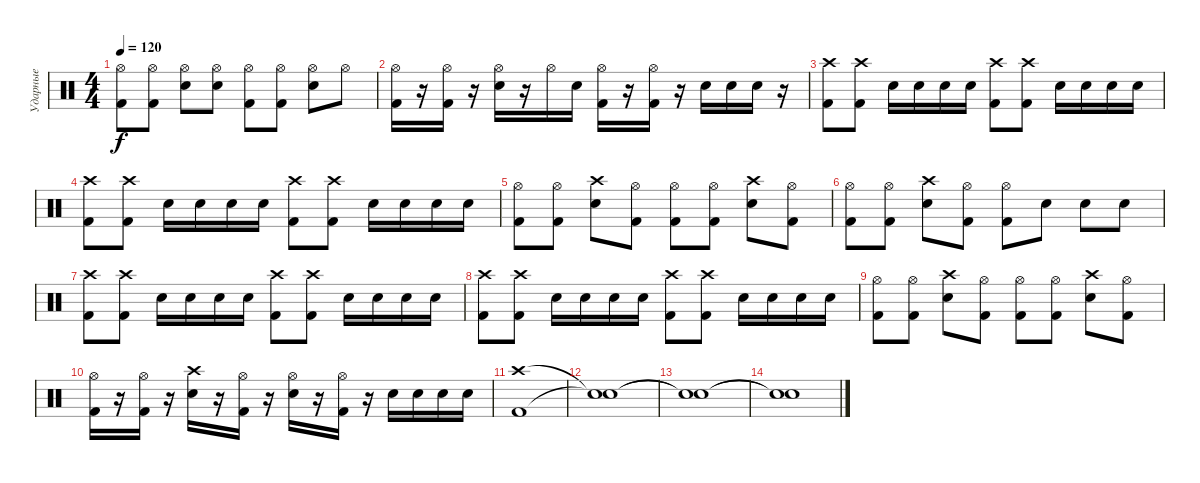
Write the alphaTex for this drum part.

\track ("Ударные" "Ударные") {instrument percussion}
\staff {score}
\articulation defaults
\ts (4 4)
\tempo 120
\clef neutral
\ks c
("Hi-Hat (open)" "Kick (hit) 2").8{dy f} ("Hi-Hat (open)" "Kick (hit) 2").8 ("Hi-Hat (open)" "Snare (hit) 2").8 ("Hi-Hat (open)" "Snare (hit) 2").8 ("Hi-Hat (open)" "Kick (hit) 2").8 ("Hi-Hat (open)" "Kick (hit) 2").8 ("Hi-Hat (open)" "Snare (hit) 2").8 "Hi-Hat (open)".8 |
("Hi-Hat (open)" "Kick (hit) 2").16 r.16 ("Hi-Hat (open)" "Kick (hit) 2").16 r.16 ("Hi-Hat (open)" "Snare (hit) 2").16 r.16 "Hi-Hat (open)".16 "Snare (hit) 2".16 ("Hi-Hat (open)" "Kick (hit) 2").16 r.16 ("Hi-Hat (open)" "Kick (hit) 2").16 r.16 "Snare (hit) 2".16 "Snare (hit) 2".16 "Snare (hit) 2".16 r.16 |
("Crash high (hit)" "Kick (hit) 2").8 ("Crash high (hit)" "Kick (hit) 2").8 "Snare (hit) 2".16 "Snare (hit) 2".16 "Snare (hit) 2".16 "Snare (hit) 2".16 ("Crash high (hit)" "Kick (hit) 2").8 ("Crash high (hit)" "Kick (hit) 2").8 "Snare (hit) 2".16 "Snare (hit) 2".16 "Snare (hit) 2".16 "Snare (hit) 2".16 |
("Crash high (hit)" "Kick (hit) 2").8 ("Crash high (hit)" "Kick (hit) 2").8 "Snare (hit) 2".16 "Snare (hit) 2".16 "Snare (hit) 2".16 "Snare (hit) 2".16 ("Crash high (hit)" "Kick (hit) 2").8 ("Crash high (hit)" "Kick (hit) 2").8 "Snare (hit) 2".16 "Snare (hit) 2".16 "Snare (hit) 2".16 "Snare (hit) 2".16 |
("Hi-Hat (open)" "Kick (hit) 2").8 ("Hi-Hat (open)" "Kick (hit) 2").8 ("Crash high (hit)" "Snare (hit) 2").8 ("Hi-Hat (open)" "Kick (hit) 2").8 ("Hi-Hat (open)" "Kick (hit) 2").8 ("Hi-Hat (open)" "Kick (hit) 2").8 ("Crash high (hit)" "Snare (hit) 2").8 ("Hi-Hat (open)" "Kick (hit) 2").8 |
("Hi-Hat (open)" "Kick (hit) 2").8 ("Hi-Hat (open)" "Kick (hit) 2").8 ("Crash high (hit)" "Snare (hit) 2").8 ("Hi-Hat (open)" "Kick (hit) 2").8 ("Hi-Hat (open)" "Kick (hit) 2").8 "Snare (hit) 2".8 "Snare (hit) 2".8 "Snare (hit) 2".8 |
("Crash high (hit)" "Kick (hit) 2").8 ("Crash high (hit)" "Kick (hit) 2").8 "Snare (hit) 2".16 "Snare (hit) 2".16 "Snare (hit) 2".16 "Snare (hit) 2".16 ("Crash high (hit)" "Kick (hit) 2").8 ("Crash high (hit)" "Kick (hit) 2").8 "Snare (hit) 2".16 "Snare (hit) 2".16 "Snare (hit) 2".16 "Snare (hit) 2".16 |
("Crash high (hit)" "Kick (hit) 2").8 ("Crash high (hit)" "Kick (hit) 2").8 "Snare (hit) 2".16 "Snare (hit) 2".16 "Snare (hit) 2".16 "Snare (hit) 2".16 ("Crash high (hit)" "Kick (hit) 2").8 ("Crash high (hit)" "Kick (hit) 2").8 "Snare (hit) 2".16 "Snare (hit) 2".16 "Snare (hit) 2".16 "Snare (hit) 2".16 |
("Hi-Hat (open)" "Kick (hit) 2").8 ("Hi-Hat (open)" "Kick (hit) 2").8 ("Crash high (hit)" "Snare (hit) 2").8 ("Hi-Hat (open)" "Kick (hit) 2").8 ("Hi-Hat (open)" "Kick (hit) 2").8 ("Hi-Hat (open)" "Kick (hit) 2").8 ("Crash high (hit)" "Snare (hit) 2").8 ("Hi-Hat (open)" "Kick (hit) 2").8 |
("Hi-Hat (open)" "Kick (hit) 2").16 r.16 ("Hi-Hat (open)" "Kick (hit) 2").16 r.16 ("Crash high (hit)" "Snare (hit) 2").16 r.16 ("Hi-Hat (open)" "Kick (hit) 2").16 r.16 ("Hi-Hat (open)" "Snare (hit) 2").16 r.16 ("Hi-Hat (open)" "Kick (hit) 2").16 r.16 "Snare (hit) 2".16 "Snare (hit) 2".16 "Snare (hit) 2".16 "Snare (hit) 2".16 |
("Crash high (hit)" "Kick (hit) 2").1 |
("Snare (hit)"{t} "Snare (hit)"{t}).1 |
("Snare (hit)"{t} "Snare (hit)"{t}).1{volume 7} |
("Snare (hit)"{t} "Snare (hit)"{t}).1{volume 3}
